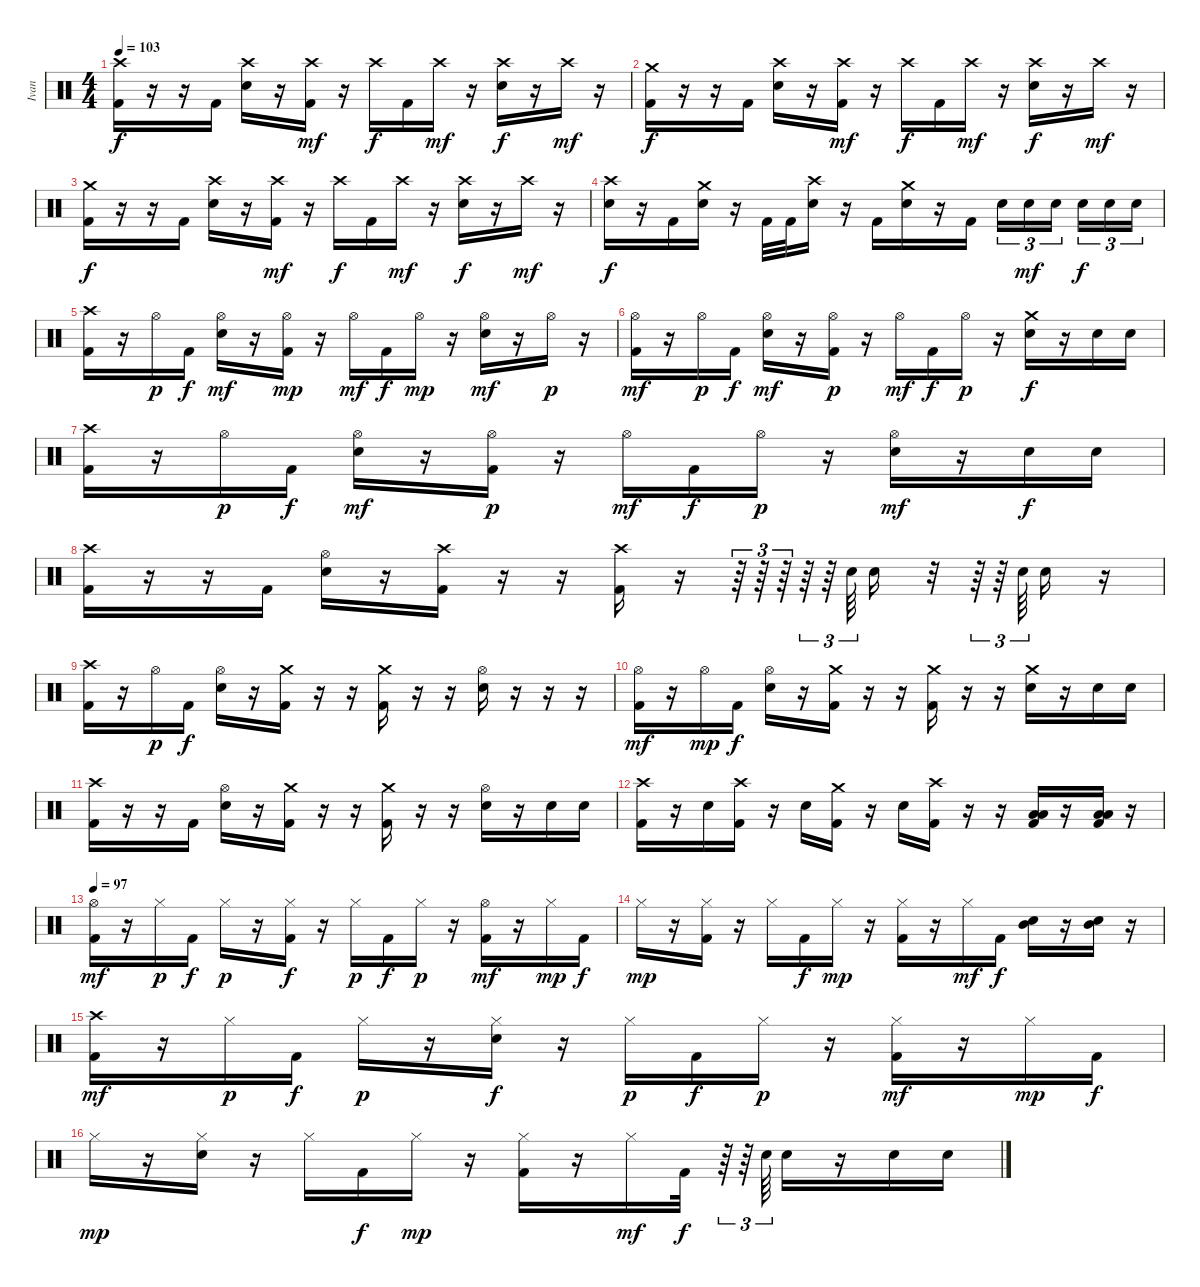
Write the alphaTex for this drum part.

\track ("Ivan" "Ivan") {instrument percussion}
\staff {score}
\articulation defaults
\ts (4 4)
\tempo 103
\clef neutral
\ks c
("Crash high (hit)" "Kick (hit) 2").16{dy f} r.16 r.16 "Kick (hit) 2".16 ("Crash high (hit)" "Snare (hit) 2").16 r.16 ("Crash high (hit)" "Kick (hit) 2").16{dy mf} r.16 "Crash high (hit)".16{dy f} "Kick (hit) 2".16 "Crash high (hit)".16{dy mf} r.16 ("Crash high (hit)" "Snare (hit) 2").16{dy f} r.16 "Crash high (hit)".16{dy mf} r.16 |
("Crash medium (hit)" "Kick (hit) 2").16{dy f} r.16 r.16 "Kick (hit) 2".16 ("Crash high (hit)" "Snare (hit) 2").16 r.16 ("Crash high (hit)" "Kick (hit) 2").16{dy mf} r.16 "Crash high (hit)".16{dy f} "Kick (hit) 2".16 "Crash high (hit)".16{dy mf} r.16 ("Crash high (hit)" "Snare (hit) 2").16{dy f} r.16 "Crash high (hit)".16{dy mf} r.16 |
("Crash medium (hit)" "Kick (hit) 2").16{dy f} r.16 r.16 "Kick (hit) 2".16 ("Crash high (hit)" "Snare (hit) 2").16 r.16 ("Crash high (hit)" "Kick (hit) 2").16{dy mf} r.16 "Crash high (hit)".16{dy f} "Kick (hit) 2".16 "Crash high (hit)".16{dy mf} r.16 ("Crash high (hit)" "Snare (hit) 2").16{dy f} r.16 "Crash high (hit)".16{dy mf} r.16 |
("Crash high (hit)" "Snare (hit) 2").16{dy f} r.16 "Kick (hit) 2".16 ("Crash medium (hit)" "Snare (hit) 2").16 r.16 "Kick (hit) 2".32 "Kick (hit) 2".32 ("Crash high (hit)" "Snare (hit) 2").16 r.16 "Kick (hit) 2".16 ("Crash medium (hit)" "Snare (hit) 2").16 r.16 "Kick (hit) 2".16 "Snare (hit) 2".16{tu (3 2)} "Snare (hit) 2".16{tu (3 2) dy mf} "Snare (hit) 2".16{tu (3 2)} "Snare (hit) 2".16{tu (3 2) dy f} "Snare (hit) 2".16{tu (3 2)} "Snare (hit) 2".16{tu (3 2)} |
("Kick (hit) 2" "Crash high (hit)").16 r.16 "Hi-Hat (open)".16{dy p} "Kick (hit) 2".16{dy f} ("Hi-Hat (open)" "Snare (hit) 2").16{dy mf} r.16 ("Hi-Hat (open)" "Kick (hit) 2").16{dy mp} r.16 "Hi-Hat (open)".16{dy mf} "Kick (hit) 2".16{dy f} "Hi-Hat (open)".16{dy mp} r.16 ("Hi-Hat (open)" "Snare (hit) 2").16{dy mf} r.16 "Hi-Hat (open)".16{dy p} r.16 |
("Kick (hit) 2" "Hi-Hat (open)").16{dy mf} r.16 "Hi-Hat (open)".16{dy p} "Kick (hit) 2".16{dy f} ("Hi-Hat (open)" "Snare (hit) 2").16{dy mf} r.16 ("Hi-Hat (open)" "Kick (hit) 2").16{dy p} r.16 "Hi-Hat (open)".16{dy mf} "Kick (hit) 2".16{dy f} "Hi-Hat (open)".16{dy p} r.16 ("Crash medium (hit)" "Snare (hit) 2").16{dy f} r.16 "Snare (hit) 2".16 "Snare (hit) 2".16 |
("Kick (hit) 2" "Crash high (hit)").16 r.16 "Hi-Hat (open)".16{dy p} "Kick (hit) 2".16{dy f} ("Hi-Hat (open)" "Snare (hit) 2").16{dy mf} r.16 ("Hi-Hat (open)" "Kick (hit) 2").16{dy p} r.16 "Hi-Hat (open)".16{dy mf} "Kick (hit) 2".16{dy f} "Hi-Hat (open)".16{dy p} r.16 ("Hi-Hat (open)" "Snare (hit) 2").16{dy mf} r.16 "Snare (hit) 2".16{dy f} "Snare (hit) 2".16 |
("Crash high (hit)" "Kick (hit) 2").16 r.16 r.16 "Kick (hit) 2".16 ("Hi-Hat (open)" "Snare (hit) 2").16 r.16 ("Crash high (hit)" "Kick (hit) 2").16 r.16 r.16 ("Crash high (hit)" "Kick (hit) 2").16 r.16 r.64{tu (3 2)} r.64{tu (3 2)} r.64{tu (3 2)} r.64{tu (3 2)} r.64{tu (3 2)} "Snare (hit) 2".64{tu (3 2)} "Snare (hit) 2".16 r.32 r.64{tu (3 2)} r.64{tu (3 2)} "Snare (hit) 2".64{tu (3 2)} "Snare (hit) 2".16 r.16 |
("Kick (hit) 2" "Crash high (hit)").16 r.16 "Hi-Hat (open)".16{dy p} "Kick (hit) 2".16{dy f} ("Hi-Hat (open)" "Snare (hit) 2").16 r.16 ("Crash medium (hit)" "Kick (hit) 2").16 r.16 r.16 ("Crash medium (hit)" "Kick (hit) 2").16 r.16 r.16 ("Hi-Hat (open)" "Snare (hit) 2").16 r.16 r.16 r.16 |
("Kick (hit) 2" "Hi-Hat (open)").16{dy mf} r.16 "Hi-Hat (open)".16{dy mp} "Kick (hit) 2".16{dy f} ("Hi-Hat (open)" "Snare (hit) 2").16 r.16 ("Crash medium (hit)" "Kick (hit) 2").16 r.16 r.16 ("Crash medium (hit)" "Kick (hit) 2").16 r.16 r.16 ("Crash medium (hit)" "Snare (hit) 2").16 r.16 "Snare (hit) 2".16 "Snare (hit) 2".16 |
("Kick (hit) 2" "Crash high (hit)").16 r.16 r.16 "Kick (hit) 2".16 ("Hi-Hat (open)" "Snare (hit) 2").16 r.16 ("Crash medium (hit)" "Kick (hit) 2").16 r.16 r.16 ("Crash medium (hit)" "Kick (hit) 2").16 r.16 r.16 ("Hi-Hat (open)" "Snare (hit) 2").16 r.16 "Snare (hit) 2".16 "Snare (hit) 2".16 |
("Crash high (hit)" "Kick (hit) 2").16 r.16 "Snare (hit) 2".16 ("Crash high (hit)" "Kick (hit) 2").16 r.16 "Snare (hit) 2".16 ("Crash medium (hit)" "Kick (hit) 2").16 r.16 "Snare (hit) 2".16 ("Crash high (hit)" "Kick (hit) 2").16 r.16 r.16 ("Low Tom (hit)" "Low Floor Tom (hit)" "Kick (hit) 2").16 r.16 ("Low Tom (hit)" "Low Floor Tom (hit)" "Kick (hit) 2").16 r.16 |
\tempo 97
("Hi-Hat (open)" "Kick (hit) 2").16{dy mf} r.16 "Hi-Hat (closed)".16{dy p} "Kick (hit) 2".16{dy f} "Hi-Hat (closed)".16{dy p} r.16 ("Hi-Hat (closed)" "Kick (hit) 2").16{dy f} r.16 "Hi-Hat (closed)".16{dy p} "Kick (hit) 2".16{dy f} "Hi-Hat (closed)".16{dy p} r.16 ("Hi-Hat (open)" "Kick (hit) 2").16{dy mf} r.16 "Hi-Hat (closed)".16{dy mp} "Kick (hit) 2".16{dy f} |
"Hi-Hat (closed)".16{dy mp} r.16 ("Hi-Hat (closed)" "Kick (hit) 2").16 r.16 "Hi-Hat (closed)".16 "Kick (hit) 2".16{dy f} "Hi-Hat (closed)".16{dy mp} r.16 ("Hi-Hat (closed)" "Kick (hit) 2").16 r.16 "Hi-Hat (closed)".16{dy mf} "Kick (hit) 2".16{dy f} ("Mid Tom (hit)" "Snare (hit) 2").16 r.16 ("Mid Tom (hit)" "Snare (hit) 2").16 r.16 |
("Crash high (hit)" "Kick (hit) 2").16{dy mf} r.16 "Hi-Hat (closed)".16{dy p} "Kick (hit) 2".16{dy f} "Hi-Hat (closed)".16{dy p} r.16 ("Hi-Hat (closed)" "Snare (hit) 2").16{dy f} r.16 "Hi-Hat (closed)".16{dy p} "Kick (hit) 2".16{dy f} "Hi-Hat (closed)".16{dy p} r.16 ("Hi-Hat (closed)" "Kick (hit) 2").16{dy mf} r.16 "Hi-Hat (closed)".16{dy mp} "Kick (hit) 2".16{dy f} |
"Hi-Hat (closed)".16{dy mp} r.16 ("Hi-Hat (closed)" "Snare (hit) 2").16 r.16 "Hi-Hat (closed)".16 "Kick (hit) 2".16{dy f} "Hi-Hat (closed)".16{dy mp} r.16 ("Hi-Hat (closed)" "Kick (hit) 2").16 r.16 "Hi-Hat (closed)".16{dy mf} "Kick (hit) 2".32{dy f} r.64{tu (3 2)} r.64{tu (3 2)} "Snare (hit) 2".64{tu (3 2)} "Snare (hit) 2".16 r.16 "Snare (hit) 2".16 "Snare (hit) 2".16
